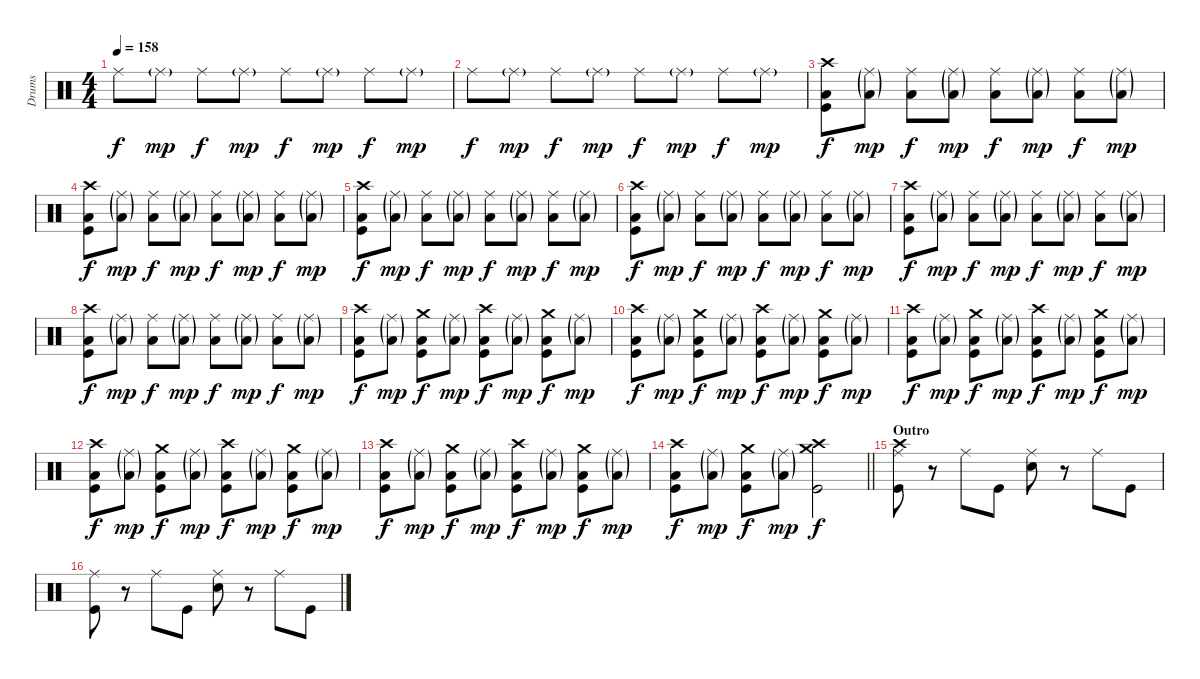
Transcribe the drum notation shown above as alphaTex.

\track ("Drums" "Drums") {instrument percussion}
\staff {score}
\articulation defaults
\ts (4 4)
\tempo 158
\clef neutral
\ks c "Ride (middle)".8{dy f} "Ride (middle)"{g}.8{dy mp} "Ride (middle)".8{dy f} "Ride (middle)"{g}.8{dy mp} "Ride (middle)".8{dy f} "Ride (middle)"{g}.8{dy mp} "Ride (middle)".8{dy f} "Ride (middle)"{g}.8{dy mp}
|
"Ride (middle)".8{dy f} "Ride (middle)"{g}.8{dy mp} "Ride (middle)".8{dy f} "Ride (middle)"{g}.8{dy mp} "Ride (middle)".8{dy f} "Ride (middle)"{g}.8{dy mp} "Ride (middle)".8{dy f} "Ride (middle)"{g}.8{dy mp} |
("Crash high (hit)" "Low Floor Tom (hit)" "Kick (hit)").8{dy f} ("Ride (middle)"{g} "Low Floor Tom (hit)"{g}).8{dy mp} ("Ride (middle)" "Low Floor Tom (hit)").8{dy f} ("Ride (middle)"{g} "Low Floor Tom (hit)"{g}).8{dy mp} ("Ride (middle)" "Low Floor Tom (hit)").8{dy f} ("Ride (middle)"{g} "Low Floor Tom (hit)"{g}).8{dy mp} ("Ride (middle)" "Low Floor Tom (hit)").8{dy f} ("Ride (middle)"{g} "Low Floor Tom (hit)"{g}).8{dy mp} |
("Crash high (hit)" "Low Floor Tom (hit)" "Kick (hit)").8{dy f} ("Ride (middle)"{g} "Low Floor Tom (hit)"{g}).8{dy mp} ("Ride (middle)" "Low Floor Tom (hit)").8{dy f} ("Ride (middle)"{g} "Low Floor Tom (hit)"{g}).8{dy mp} ("Ride (middle)" "Low Floor Tom (hit)").8{dy f} ("Ride (middle)"{g} "Low Floor Tom (hit)"{g}).8{dy mp} ("Ride (middle)" "Low Floor Tom (hit)").8{dy f} ("Ride (middle)"{g} "Low Floor Tom (hit)"{g}).8{dy mp} |
("Crash high (hit)" "Low Floor Tom (hit)" "Kick (hit)").8{dy f} ("Ride (middle)"{g} "Low Floor Tom (hit)"{g}).8{dy mp} ("Ride (middle)" "Low Floor Tom (hit)").8{dy f} ("Ride (middle)"{g} "Low Floor Tom (hit)"{g}).8{dy mp} ("Ride (middle)" "Low Floor Tom (hit)").8{dy f} ("Ride (middle)"{g} "Low Floor Tom (hit)"{g}).8{dy mp} ("Ride (middle)" "Low Floor Tom (hit)").8{dy f} ("Ride (middle)"{g} "Low Floor Tom (hit)"{g}).8{dy mp} |
("Crash high (hit)" "Low Floor Tom (hit)" "Kick (hit)").8{dy f} ("Ride (middle)"{g} "Low Floor Tom (hit)"{g}).8{dy mp} ("Ride (middle)" "Low Floor Tom (hit)").8{dy f} ("Ride (middle)"{g} "Low Floor Tom (hit)"{g}).8{dy mp} ("Ride (middle)" "Low Floor Tom (hit)").8{dy f} ("Ride (middle)"{g} "Low Floor Tom (hit)"{g}).8{dy mp} ("Ride (middle)" "Low Floor Tom (hit)").8{dy f} ("Ride (middle)"{g} "Low Floor Tom (hit)"{g}).8{dy mp} |
("Crash high (hit)" "Low Floor Tom (hit)" "Kick (hit)").8{dy f} ("Ride (middle)"{g} "Low Floor Tom (hit)"{g}).8{dy mp} ("Ride (middle)" "Low Floor Tom (hit)").8{dy f} ("Ride (middle)"{g} "Low Floor Tom (hit)"{g}).8{dy mp} ("Ride (middle)" "Low Floor Tom (hit)").8{dy f} ("Ride (middle)"{g} "Low Floor Tom (hit)"{g}).8{dy mp} ("Ride (middle)" "Low Floor Tom (hit)").8{dy f} ("Ride (middle)"{g} "Low Floor Tom (hit)"{g}).8{dy mp} |
("Crash high (hit)" "Low Floor Tom (hit)" "Kick (hit)").8{dy f} ("Ride (middle)"{g} "Low Floor Tom (hit)"{g}).8{dy mp} ("Ride (middle)" "Low Floor Tom (hit)").8{dy f} ("Ride (middle)"{g} "Low Floor Tom (hit)"{g}).8{dy mp} ("Ride (middle)" "Low Floor Tom (hit)").8{dy f} ("Ride (middle)"{g} "Low Floor Tom (hit)"{g}).8{dy mp} ("Ride (middle)" "Low Floor Tom (hit)").8{dy f} ("Ride (middle)"{g} "Low Floor Tom (hit)"{g}).8{dy mp} |
("Crash high (hit)" "Low Floor Tom (hit)" "Kick (hit)").8{dy f} ("Ride (middle)"{g} "Low Floor Tom (hit)"{g}).8{dy mp} ("Crash medium (hit)" "Low Floor Tom (hit)" "Kick (hit)").8{dy f} ("Ride (middle)"{g} "Low Floor Tom (hit)"{g}).8{dy mp} ("Crash high (hit)" "Low Floor Tom (hit)" "Kick (hit)").8{dy f} ("Ride (middle)"{g} "Low Floor Tom (hit)"{g}).8{dy mp} ("Crash medium (hit)" "Low Floor Tom (hit)" "Kick (hit)").8{dy f} ("Ride (middle)"{g} "Low Floor Tom (hit)"{g}).8{dy mp} |
("Crash high (hit)" "Low Floor Tom (hit)" "Kick (hit)").8{dy f} ("Ride (middle)"{g} "Low Floor Tom (hit)"{g}).8{dy mp} ("Crash medium (hit)" "Low Floor Tom (hit)" "Kick (hit)").8{dy f} ("Ride (middle)"{g} "Low Floor Tom (hit)"{g}).8{dy mp} ("Crash high (hit)" "Low Floor Tom (hit)" "Kick (hit)").8{dy f} ("Ride (middle)"{g} "Low Floor Tom (hit)"{g}).8{dy mp} ("Crash medium (hit)" "Low Floor Tom (hit)" "Kick (hit)").8{dy f} ("Ride (middle)"{g} "Low Floor Tom (hit)"{g}).8{dy mp} |
("Crash high (hit)" "Low Floor Tom (hit)" "Kick (hit)").8{dy f} ("Ride (middle)"{g} "Low Floor Tom (hit)"{g}).8{dy mp} ("Crash medium (hit)" "Low Floor Tom (hit)" "Kick (hit)").8{dy f} ("Ride (middle)"{g} "Low Floor Tom (hit)"{g}).8{dy mp} ("Crash high (hit)" "Low Floor Tom (hit)" "Kick (hit)").8{dy f} ("Ride (middle)"{g} "Low Floor Tom (hit)"{g}).8{dy mp} ("Crash medium (hit)" "Low Floor Tom (hit)" "Kick (hit)").8{dy f} ("Ride (middle)"{g} "Low Floor Tom (hit)"{g}).8{dy mp} |
("Crash high (hit)" "Low Floor Tom (hit)" "Kick (hit)").8{dy f} ("Ride (middle)"{g} "Low Floor Tom (hit)"{g}).8{dy mp} ("Crash medium (hit)" "Low Floor Tom (hit)" "Kick (hit)").8{dy f} ("Ride (middle)"{g} "Low Floor Tom (hit)"{g}).8{dy mp} ("Crash high (hit)" "Low Floor Tom (hit)" "Kick (hit)").8{dy f} ("Ride (middle)"{g} "Low Floor Tom (hit)"{g}).8{dy mp} ("Crash medium (hit)" "Low Floor Tom (hit)" "Kick (hit)").8{dy f} ("Ride (middle)"{g} "Low Floor Tom (hit)"{g}).8{dy mp} |
("Crash high (hit)" "Low Floor Tom (hit)" "Kick (hit)").8{dy f} ("Ride (middle)"{g} "Low Floor Tom (hit)"{g}).8{dy mp} ("Crash medium (hit)" "Low Floor Tom (hit)" "Kick (hit)").8{dy f} ("Ride (middle)"{g} "Low Floor Tom (hit)"{g}).8{dy mp} ("Crash high (hit)" "Low Floor Tom (hit)" "Kick (hit)").8{dy f} ("Ride (middle)"{g} "Low Floor Tom (hit)"{g}).8{dy mp} ("Crash medium (hit)" "Low Floor Tom (hit)" "Kick (hit)").8{dy f} ("Ride (middle)"{g} "Low Floor Tom (hit)"{g}).8{dy mp} |
\barLineRight lightlight
("Crash high (hit)" "Low Floor Tom (hit)" "Kick (hit)").8{dy f} ("Ride (middle)"{g} "Low Floor Tom (hit)"{g}).8{dy mp} ("Crash medium (hit)" "Low Floor Tom (hit)" "Kick (hit)").8{dy f} ("Ride (middle)"{g} "Low Floor Tom (hit)"{g}).8{dy mp} ("Crash medium (hit)" "Crash high (hit)" "Kick (hit)").2{dy f} |
\section ("" "Outro")
("Crash high (hit)" "Ride (middle)" "Kick (hit)").8 r.8 "Ride (middle)".8 "Kick (hit)".8 ("Ride (middle)" "Snare (hit) 2").8 r.8 "Ride (middle)".8 "Kick (hit)".8 |
("Ride (middle)" "Kick (hit)").8 r.8 "Ride (middle)".8 "Kick (hit)".8 ("Ride (middle)" "Snare (hit) 2").8 r.8 "Ride (middle)".8 "Kick (hit)".8
